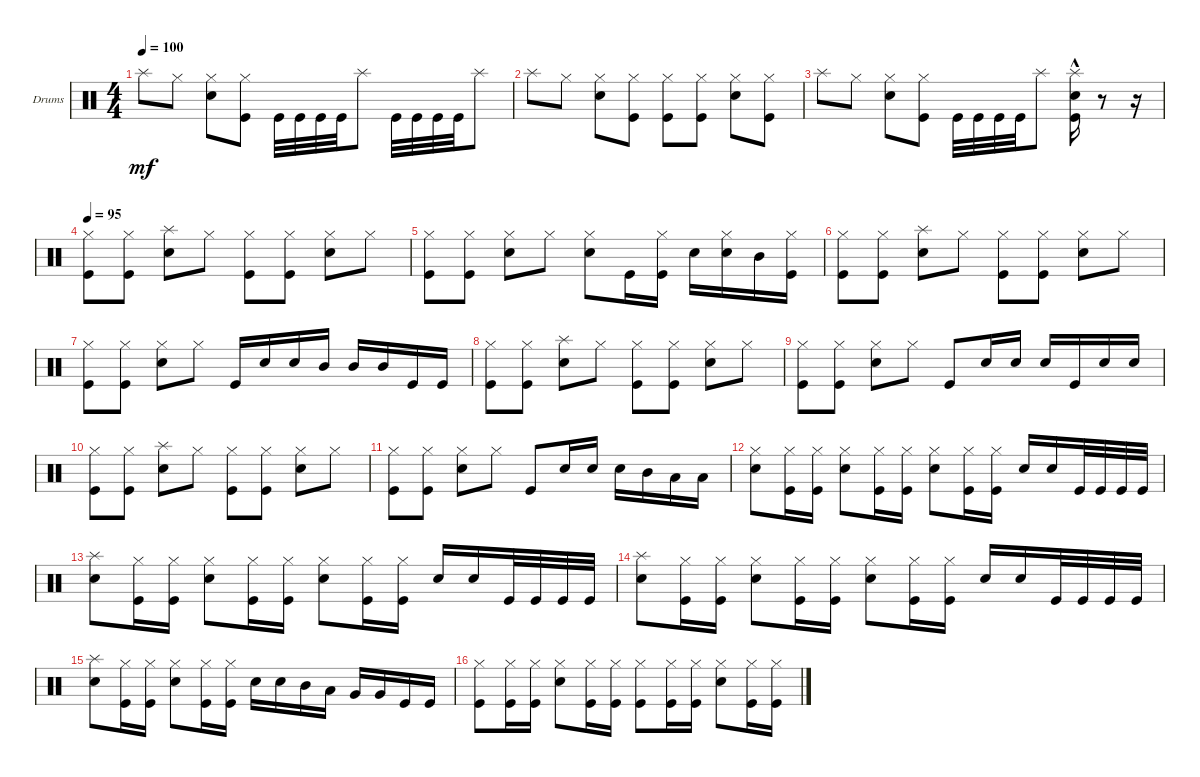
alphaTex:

\defaultSystemsLayout 4
\bracketExtendMode groupsimilarinstruments
\firstSystemTrackNameOrientation horizontal
\otherSystemsTrackNameOrientation horizontal
\track ("Drumkit" "Drums") {instrument percussion}
\staff {score}
\articulation defaults
\ts (4 4)
\tempo 100
\clef neutral
\ks c "Splash (hit)".8{dy mf} "Hi-Hat (closed)".8
("Snare (hit) 2" "Hi-Hat (closed)").8 ("Kick (hit)" "Hi-Hat (closed)").8 "Kick (hit)".32 "Kick (hit)".32 "Kick (hit)".32 "Kick (hit)".32 "Splash (hit)".8 "Kick (hit)".32 "Kick (hit)".32 "Kick (hit)".32 "Kick (hit)".32 "Splash (hit)".8 |
"Splash (hit)".8 "Hi-Hat (closed)".8 ("Snare (hit) 2" "Hi-Hat (closed)").8 ("Kick (hit)" "Hi-Hat (closed)").8 ("Kick (hit)" "Hi-Hat (closed)").8 ("Kick (hit)" "Hi-Hat (closed)").8 ("Snare (hit) 2" "Hi-Hat (closed)").8 ("Kick (hit)" "Hi-Hat (closed)").8 |
"Splash (hit)".8 "Hi-Hat (closed)".8 ("Snare (hit) 2" "Hi-Hat (closed)").8 ("Kick (hit)" "Hi-Hat (closed)").8 "Kick (hit)".32 "Kick (hit)".32 "Kick (hit)".32 "Kick (hit)".32 "Splash (hit)".8 ("Splash (hit)"{hac} "Snare (hit) 2"{hac} "Kick (hit)"{hac}).16 r.8 r.16 |
\tempo 95
("Kick (hit)" "Hi-Hat (closed)").8 ("Hi-Hat (closed)" "Kick (hit)").8 ("Snare (hit) 2" "Splash (hit)").8 "Hi-Hat (closed)".8 ("Hi-Hat (closed)" "Kick (hit)").8 ("Hi-Hat (closed)" "Kick (hit)").8 ("Hi-Hat (closed)" "Snare (hit) 2").8 "Hi-Hat (closed)".8 |
("Hi-Hat (closed)" "Kick (hit)").8 ("Hi-Hat (closed)" "Kick (hit)").8 ("Snare (hit) 2" "Hi-Hat (closed)").8 "Hi-Hat (closed)".8 ("Snare (hit) 2" "Hi-Hat (closed)").8 "Kick (hit)".16 ("Kick (hit)" "Hi-Hat (closed)").16 "Snare (hit) 2".16 ("Snare (hit) 2" "Hi-Hat (closed)").16 "Mid Tom (hit)".16 ("Kick (hit)" "Hi-Hat (closed)").16 |
("Kick (hit)" "Hi-Hat (closed)").8 ("Hi-Hat (closed)" "Kick (hit)").8 ("Snare (hit) 2" "Splash (hit)").8 "Hi-Hat (closed)".8 ("Hi-Hat (closed)" "Kick (hit)").8 ("Hi-Hat (closed)" "Kick (hit)").8 ("Hi-Hat (closed)" "Snare (hit) 2").8 "Hi-Hat (closed)".8 |
("Hi-Hat (closed)" "Kick (hit)").8 ("Hi-Hat (closed)" "Kick (hit)").8 ("Snare (hit) 2" "Hi-Hat (closed)").8 "Hi-Hat (closed)".8 "Kick (hit)".16 "Snare (hit) 2".16 "Snare (hit) 2".16 "Mid Tom (hit)".16 "Mid Tom (hit)".16 "Mid Tom (hit)".16 "Kick (hit)".16 "Kick (hit)".16 |
("Kick (hit)" "Hi-Hat (closed)").8 ("Hi-Hat (closed)" "Kick (hit)").8 ("Snare (hit) 2" "Splash (hit)").8 "Hi-Hat (closed)".8 ("Hi-Hat (closed)" "Kick (hit)").8 ("Hi-Hat (closed)" "Kick (hit)").8 ("Hi-Hat (closed)" "Snare (hit) 2").8 "Hi-Hat (closed)".8 |
("Hi-Hat (closed)" "Kick (hit)").8 ("Hi-Hat (closed)" "Kick (hit)").8 ("Snare (hit) 2" "Hi-Hat (closed)").8 "Hi-Hat (closed)".8 "Kick (hit)".8 "Snare (hit) 2".16 "Snare (hit) 2".16 "Snare (hit) 2".16 "Kick (hit)".16 "Snare (hit) 2".16 "Snare (hit) 2".16 |
("Kick (hit)" "Hi-Hat (closed)").8 ("Hi-Hat (closed)" "Kick (hit)").8 ("Snare (hit) 2" "Splash (hit)").8 "Hi-Hat (closed)".8 ("Hi-Hat (closed)" "Kick (hit)").8 ("Hi-Hat (closed)" "Kick (hit)").8 ("Hi-Hat (closed)" "Snare (hit) 2").8 "Hi-Hat (closed)".8 |
("Hi-Hat (closed)" "Kick (hit)").8 ("Hi-Hat (closed)" "Kick (hit)").8 ("Snare (hit) 2" "Hi-Hat (closed)").8 "Hi-Hat (closed)".8 "Kick (hit)".8 "Snare (hit) 2".16 "Snare (hit) 2".16 "Snare (hit) 2".16 "Mid Tom (hit)".16 "Low Tom (hit)".16 "Low Tom (hit)".16 |
("Snare (hit) 2" "Hi-Hat (closed)").8 ("Kick (hit)" "Hi-Hat (closed)").16 ("Kick (hit)" "Hi-Hat (closed)").16 ("Snare (hit) 2" "Hi-Hat (closed)").8 ("Kick (hit)" "Hi-Hat (closed)").16 ("Kick (hit)" "Hi-Hat (closed)").16 ("Snare (hit) 2" "Hi-Hat (closed)").8 ("Kick (hit)" "Hi-Hat (closed)").16 ("Kick (hit)" "Hi-Hat (closed)").16 "Snare (hit) 2".16 "Snare (hit) 2".16 "Kick (hit)".32 "Kick (hit)".32 "Kick (hit)".32 "Kick (hit)".32 |
("Snare (hit) 2" "Splash (hit)").8 ("Kick (hit)" "Hi-Hat (closed)").16 ("Kick (hit)" "Hi-Hat (closed)").16 ("Snare (hit) 2" "Hi-Hat (closed)").8 ("Kick (hit)" "Hi-Hat (closed)").16 ("Kick (hit)" "Hi-Hat (closed)").16 ("Snare (hit) 2" "Hi-Hat (closed)").8 ("Kick (hit)" "Hi-Hat (closed)").16 ("Kick (hit)" "Hi-Hat (closed)").16 "Snare (hit) 2".16 "Snare (hit) 2".16 "Kick (hit)".32 "Kick (hit)".32 "Kick (hit)".32 "Kick (hit)".32 |
("Snare (hit) 2" "Splash (hit)").8 ("Kick (hit)" "Hi-Hat (closed)").16 ("Kick (hit)" "Hi-Hat (closed)").16 ("Snare (hit) 2" "Hi-Hat (closed)").8 ("Kick (hit)" "Hi-Hat (closed)").16 ("Kick (hit)" "Hi-Hat (closed)").16 ("Snare (hit) 2" "Hi-Hat (closed)").8 ("Kick (hit)" "Hi-Hat (closed)").16 ("Kick (hit)" "Hi-Hat (closed)").16 "Snare (hit) 2".16 "Snare (hit) 2".16 "Kick (hit)".32 "Kick (hit)".32 "Kick (hit)".32 "Kick (hit)".32 |
("Snare (hit) 2" "Splash (hit)").8 ("Kick (hit)" "Hi-Hat (closed)").16 ("Kick (hit)" "Hi-Hat (closed)").16 ("Snare (hit) 2" "Hi-Hat (closed)").8 ("Kick (hit)" "Hi-Hat (closed)").16 ("Kick (hit)" "Hi-Hat (closed)").16 "Snare (hit) 2".16 "Snare (hit) 2".16 "Mid Tom (hit)".16 "Low Tom (hit)".16 "Very Low Tom (hit)".16 "Very Low Tom (hit)".16 "Kick (hit)".16 "Kick (hit)".16 |
("Kick (hit)" "Hi-Hat (closed)").8 ("Kick (hit)" "Hi-Hat (closed)").16 ("Kick (hit)" "Hi-Hat (closed)").16 ("Snare (hit) 2" "Hi-Hat (closed)").8 ("Kick (hit)" "Hi-Hat (closed)").16 ("Kick (hit)" "Hi-Hat (closed)").16 ("Kick (hit)" "Hi-Hat (closed)").8 ("Kick (hit)" "Hi-Hat (closed)").16 ("Kick (hit)" "Hi-Hat (closed)").16 ("Snare (hit) 2" "Hi-Hat (closed)").8 ("Kick (hit)" "Hi-Hat (closed)").16 ("Kick (hit)" "Hi-Hat (closed)").16
